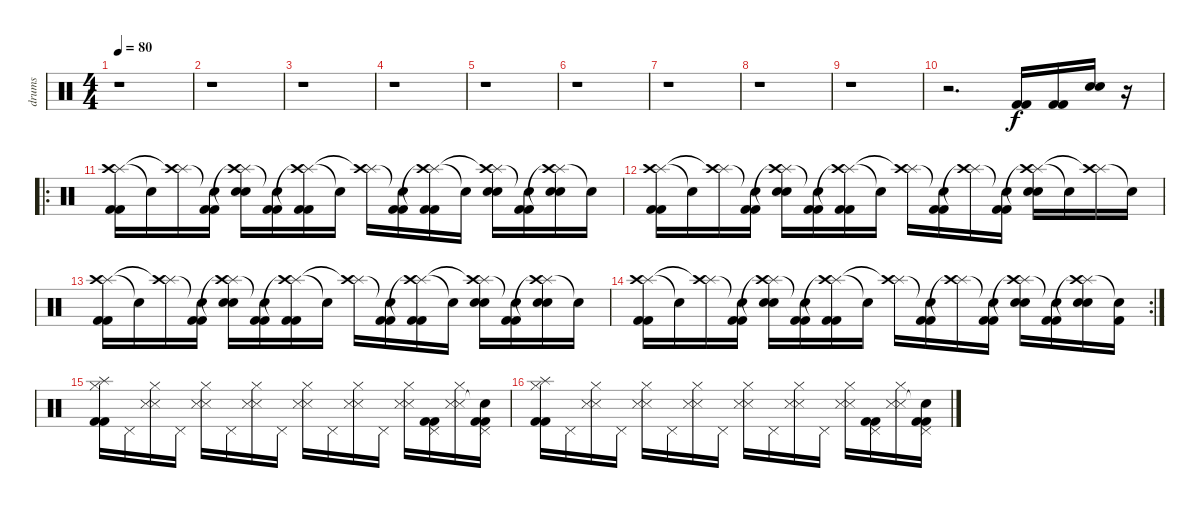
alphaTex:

\track ("drums" "drums") {instrument percussion}
\staff {score}
\articulation defaults
\ts (4 4)
\tempo 80
\clef neutral
\ks c
r.1{dy f} |
r.1 |
r.1 |
r.1 |
r.1 |
r.1 |
r.1 |
r.1 |
r.1 |
r.2{d} ("Kick (hit) 2" "Kick (hit) 2").16 ("Kick (hit) 2" "Kick (hit) 2").16 ("Electric Snare (hit)" "Electric Snare (hit)").16 r.16 |
\ro
("Splash (hit)" "Crash high (hit)" "Kick (hit) 2" "Kick (hit) 2").16 "Snare (hit)"{t}.16 ("Splash (hit)" "Crash high (hit)"{t}).16 ("Snare (hit)"{t} "Kick (hit) 2" "Kick (hit) 2").16 ("Splash (hit)" "Crash high (hit)"{t} "Electric Snare (hit)" "Electric Snare (hit)").16 ("Snare (hit)"{t} "Kick (hit) 2" "Kick (hit) 2").16 ("Splash (hit)" "Crash high (hit)"{t} "Kick (hit) 2" "Kick (hit) 2").16 "Snare (hit)"{t}.16 ("Splash (hit)" "Crash high (hit)"{t}).16 ("Snare (hit)"{t} "Kick (hit) 2" "Kick (hit) 2").16 ("Splash (hit)" "Crash high (hit)"{t} "Kick (hit) 2" "Kick (hit) 2").16 "Snare (hit)"{t}.16 ("Splash (hit)" "Crash high (hit)"{t} "Electric Snare (hit)" "Electric Snare (hit)").16 ("Snare (hit)"{t} "Kick (hit) 2" "Kick (hit) 2").16 ("Splash (hit)" "Crash high (hit)"{t} "Electric Snare (hit)" "Electric Snare (hit)").16 "Snare (hit)"{t}.16 |
("Splash (hit)" "Crash high (hit)" "Kick (hit) 2" "Kick (hit) 2").16 "Snare (hit)"{t}.16 ("Splash (hit)" "Crash high (hit)"{t}).16 ("Snare (hit)"{t} "Kick (hit) 2" "Kick (hit) 2").16 ("Splash (hit)" "Crash high (hit)"{t} "Electric Snare (hit)" "Electric Snare (hit)").16 ("Snare (hit)"{t} "Kick (hit) 2" "Kick (hit) 2").16 ("Splash (hit)" "Crash high (hit)"{t} "Kick (hit) 2" "Kick (hit) 2").16 "Snare (hit)"{t}.16 ("Splash (hit)" "Crash high (hit)"{t}).16 ("Snare (hit)"{t} "Kick (hit) 2" "Kick (hit) 2").16 ("Splash (hit)" "Crash high (hit)"{t}).16 ("Snare (hit)"{t} "Kick (hit) 2" "Kick (hit) 2").16 ("Splash (hit)" "Crash high (hit)"{t} "Electric Snare (hit)" "Electric Snare (hit)").16 "Snare (hit)"{t}.16 ("Splash (hit)" "Crash high (hit)"{t}).16 "Snare (hit)"{t}.16 |
("Splash (hit)" "Crash high (hit)" "Kick (hit) 2" "Kick (hit) 2").16 "Snare (hit)"{t}.16 ("Splash (hit)" "Crash high (hit)"{t}).16 ("Snare (hit)"{t} "Kick (hit) 2" "Kick (hit) 2").16 ("Splash (hit)" "Crash high (hit)"{t} "Electric Snare (hit)" "Electric Snare (hit)").16 ("Snare (hit)"{t} "Kick (hit) 2" "Kick (hit) 2").16 ("Splash (hit)" "Crash high (hit)"{t} "Kick (hit) 2" "Kick (hit) 2").16 "Snare (hit)"{t}.16 ("Splash (hit)" "Crash high (hit)"{t}).16 ("Snare (hit)"{t} "Kick (hit) 2" "Kick (hit) 2").16 ("Splash (hit)" "Crash high (hit)"{t} "Kick (hit) 2" "Kick (hit) 2").16 "Snare (hit)"{t}.16 ("Splash (hit)" "Crash high (hit)"{t} "Electric Snare (hit)" "Electric Snare (hit)").16 ("Snare (hit)"{t} "Kick (hit) 2" "Kick (hit) 2").16 ("Splash (hit)" "Crash high (hit)"{t} "Electric Snare (hit)" "Electric Snare (hit)").16 "Snare (hit)"{t}.16 |
\rc 2
("Splash (hit)" "Crash high (hit)" "Kick (hit) 2" "Kick (hit) 2").16 "Snare (hit)"{t}.16 ("Splash (hit)" "Crash high (hit)"{t}).16 ("Snare (hit)"{t} "Kick (hit) 2" "Kick (hit) 2").16 ("Splash (hit)" "Crash high (hit)"{t} "Electric Snare (hit)" "Electric Snare (hit)").16 ("Snare (hit)"{t} "Kick (hit) 2" "Kick (hit) 2").16 ("Splash (hit)" "Crash high (hit)"{t} "Kick (hit) 2" "Kick (hit) 2").16 "Snare (hit)"{t}.16 ("Splash (hit)" "Crash high (hit)"{t}).16 ("Snare (hit)"{t} "Kick (hit) 2" "Kick (hit) 2").16 ("Splash (hit)" "Crash high (hit)"{t}).16 ("Snare (hit)"{t} "Kick (hit) 2" "Kick (hit) 2").16 ("Splash (hit)" "Crash high (hit)"{t} "Electric Snare (hit)" "Electric Snare (hit)").16 ("Snare (hit)"{t} "Kick (hit) 2" "Kick (hit) 2").16 ("Splash (hit)" "Crash high (hit)"{t} "Electric Snare (hit)" "Electric Snare (hit)").16 ("Snare (hit)"{t} "Kick (hit) 2").16 |
("Hi-Hat (closed)" "Splash (hit)" "Kick (hit) 2" "Kick (hit) 2").16 "Pedal Hi-Hat (hit)".16 ("Hi-Hat (closed)" "Snare (side stick) 3" "Snare (side stick) 3").16 "Pedal Hi-Hat (hit)".16 ("Hi-Hat (closed)" "Snare (side stick) 3" "Snare (side stick) 3").16 "Pedal Hi-Hat (hit)".16 ("Hi-Hat (closed)" "Snare (side stick) 3" "Snare (side stick) 3").16 "Pedal Hi-Hat (hit)".16 ("Hi-Hat (closed)" "Snare (side stick) 3" "Snare (side stick) 3").16 "Pedal Hi-Hat (hit)".16 ("Hi-Hat (closed)" "Snare (side stick) 3" "Snare (side stick) 3").16 "Pedal Hi-Hat (hit)".16 ("Hi-Hat (closed)" "Snare (side stick) 3" "Snare (side stick) 3").16 ("Pedal Hi-Hat (hit)" "Kick (hit) 2" "Kick (hit) 2").16 ("Hi-Hat (closed)" "Snare (side stick) 3" "Snare (side stick) 3").16 ("Pedal Hi-Hat (hit)" "Snare (hit)"{t} "Kick (hit) 2" "Kick (hit) 2").16 |
("Hi-Hat (closed)" "Splash (hit)" "Kick (hit) 2" "Kick (hit) 2").16 "Pedal Hi-Hat (hit)".16 ("Hi-Hat (closed)" "Snare (side stick) 3" "Snare (side stick) 3").16 "Pedal Hi-Hat (hit)".16 ("Hi-Hat (closed)" "Snare (side stick) 3" "Snare (side stick) 3").16 "Pedal Hi-Hat (hit)".16 ("Hi-Hat (closed)" "Snare (side stick) 3" "Snare (side stick) 3").16 "Pedal Hi-Hat (hit)".16 ("Hi-Hat (closed)" "Snare (side stick) 3" "Snare (side stick) 3").16 "Pedal Hi-Hat (hit)".16 ("Hi-Hat (closed)" "Snare (side stick) 3" "Snare (side stick) 3").16 "Pedal Hi-Hat (hit)".16 ("Hi-Hat (closed)" "Snare (side stick) 3" "Snare (side stick) 3").16 ("Pedal Hi-Hat (hit)" "Kick (hit) 2" "Kick (hit) 2").16 ("Hi-Hat (closed)" "Snare (side stick) 3" "Snare (side stick) 3").16 ("Pedal Hi-Hat (hit)" "Snare (hit)"{t} "Kick (hit) 2" "Kick (hit) 2").16
